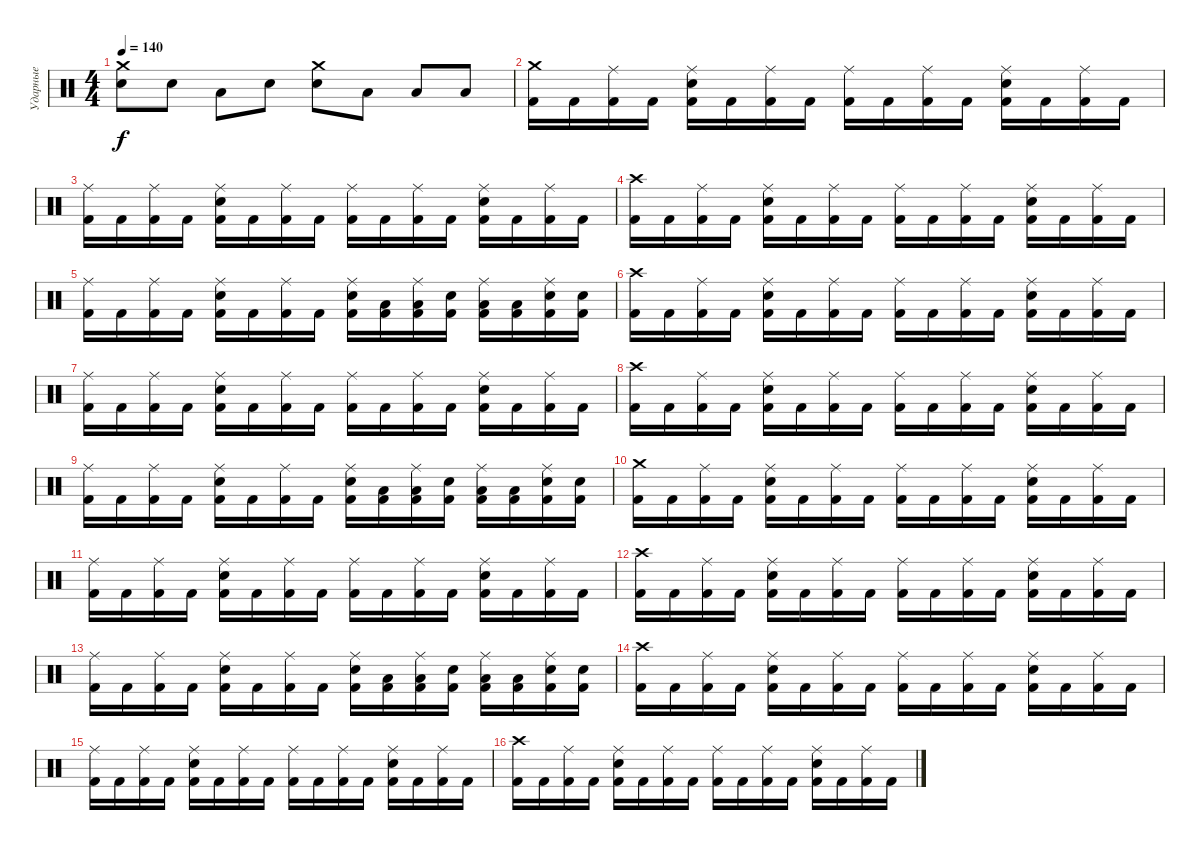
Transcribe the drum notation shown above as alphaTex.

\track ("Ударные" "Ударные") {instrument percussion}
\staff {score}
\articulation defaults
\ts (4 4)
\tempo 140
\clef neutral
\ks c
("Crash medium (hit)" "Electric Snare (hit)").8{dy f} "Electric Snare (hit)".8 "Low Tom (hit)".8 "Electric Snare (hit)".8 ("Crash medium (hit)" "Electric Snare (hit)").8 "Low Tom (hit)".8 "Low Tom (hit)".8 "Low Tom (hit)".8 |
("Crash medium (hit)" "Kick (hit) 2").16 "Kick (hit) 2".16 ("Ride (middle)" "Kick (hit) 2").16 "Kick (hit) 2".16 ("Ride (middle)" "Electric Snare (hit)" "Kick (hit) 2").16 "Kick (hit) 2".16 ("Ride (middle)" "Kick (hit) 2").16 "Kick (hit) 2".16 ("Ride (middle)" "Kick (hit) 2").16 "Kick (hit) 2".16 ("Ride (middle)" "Kick (hit) 2").16 "Kick (hit) 2".16 ("Ride (middle)" "Electric Snare (hit)" "Kick (hit) 2").16 "Kick (hit) 2".16 ("Ride (middle)" "Kick (hit) 2").16 "Kick (hit) 2".16 |
("Ride (middle)" "Kick (hit) 2").16 "Kick (hit) 2".16 ("Ride (middle)" "Kick (hit) 2").16 "Kick (hit) 2".16 ("Ride (middle)" "Electric Snare (hit)" "Kick (hit) 2").16 "Kick (hit) 2".16 ("Ride (middle)" "Kick (hit) 2").16 "Kick (hit) 2".16 ("Ride (middle)" "Kick (hit) 2").16 "Kick (hit) 2".16 ("Ride (middle)" "Kick (hit) 2").16 "Kick (hit) 2".16 ("Ride (middle)" "Electric Snare (hit)" "Kick (hit) 2").16 "Kick (hit) 2".16 ("Ride (middle)" "Kick (hit) 2").16 "Kick (hit) 2".16 |
("Crash high (hit)" "Kick (hit) 2").16 "Kick (hit) 2".16 ("Ride (middle)" "Kick (hit) 2").16 "Kick (hit) 2".16 ("Ride (middle)" "Electric Snare (hit)" "Kick (hit) 2").16 "Kick (hit) 2".16 ("Ride (middle)" "Kick (hit) 2").16 "Kick (hit) 2".16 ("Ride (middle)" "Kick (hit) 2").16 "Kick (hit) 2".16 ("Ride (middle)" "Kick (hit) 2").16 "Kick (hit) 2".16 ("Ride (middle)" "Electric Snare (hit)" "Kick (hit) 2").16 "Kick (hit) 2".16 ("Ride (middle)" "Kick (hit) 2").16 "Kick (hit) 2".16 |
("Ride (middle)" "Kick (hit) 2").16 "Kick (hit) 2".16 ("Ride (middle)" "Kick (hit) 2").16 "Kick (hit) 2".16 ("Ride (middle)" "Electric Snare (hit)" "Kick (hit) 2").16 "Kick (hit) 2".16 ("Ride (middle)" "Kick (hit) 2").16 "Kick (hit) 2".16 ("Ride (middle)" "Electric Snare (hit)" "Kick (hit) 2").16 ("Low Tom (hit)" "Kick (hit) 2").16 ("Ride (middle)" "Low Tom (hit)" "Kick (hit) 2").16 ("Electric Snare (hit)" "Kick (hit) 2").16 ("Ride (middle)" "Low Tom (hit)" "Kick (hit) 2").16 ("Low Tom (hit)" "Kick (hit) 2").16 ("Ride (middle)" "Electric Snare (hit)" "Kick (hit) 2").16 ("Electric Snare (hit)" "Kick (hit) 2").16 |
("Crash high (hit)" "Kick (hit) 2").16 "Kick (hit) 2".16 ("Ride (middle)" "Kick (hit) 2").16 "Kick (hit) 2".16 ("Ride (middle)" "Electric Snare (hit)" "Kick (hit) 2").16 "Kick (hit) 2".16 ("Ride (middle)" "Kick (hit) 2").16 "Kick (hit) 2".16 ("Ride (middle)" "Kick (hit) 2").16 "Kick (hit) 2".16 ("Ride (middle)" "Kick (hit) 2").16 "Kick (hit) 2".16 ("Ride (middle)" "Electric Snare (hit)" "Kick (hit) 2").16 "Kick (hit) 2".16 ("Ride (middle)" "Kick (hit) 2").16 "Kick (hit) 2".16 |
("Ride (middle)" "Kick (hit) 2").16 "Kick (hit) 2".16 ("Ride (middle)" "Kick (hit) 2").16 "Kick (hit) 2".16 ("Ride (middle)" "Electric Snare (hit)" "Kick (hit) 2").16 "Kick (hit) 2".16 ("Ride (middle)" "Kick (hit) 2").16 "Kick (hit) 2".16 ("Ride (middle)" "Kick (hit) 2").16 "Kick (hit) 2".16 ("Ride (middle)" "Kick (hit) 2").16 "Kick (hit) 2".16 ("Ride (middle)" "Electric Snare (hit)" "Kick (hit) 2").16 "Kick (hit) 2".16 ("Ride (middle)" "Kick (hit) 2").16 "Kick (hit) 2".16 |
("Crash high (hit)" "Kick (hit) 2").16 "Kick (hit) 2".16 ("Ride (middle)" "Kick (hit) 2").16 "Kick (hit) 2".16 ("Ride (middle)" "Electric Snare (hit)" "Kick (hit) 2").16 "Kick (hit) 2".16 ("Ride (middle)" "Kick (hit) 2").16 "Kick (hit) 2".16 ("Ride (middle)" "Kick (hit) 2").16 "Kick (hit) 2".16 ("Ride (middle)" "Kick (hit) 2").16 "Kick (hit) 2".16 ("Ride (middle)" "Electric Snare (hit)" "Kick (hit) 2").16 "Kick (hit) 2".16 ("Ride (middle)" "Kick (hit) 2").16 "Kick (hit) 2".16 |
("Ride (middle)" "Kick (hit) 2").16 "Kick (hit) 2".16 ("Ride (middle)" "Kick (hit) 2").16 "Kick (hit) 2".16 ("Ride (middle)" "Electric Snare (hit)" "Kick (hit) 2").16 "Kick (hit) 2".16 ("Ride (middle)" "Kick (hit) 2").16 "Kick (hit) 2".16 ("Ride (middle)" "Electric Snare (hit)" "Kick (hit) 2").16 ("Low Tom (hit)" "Kick (hit) 2").16 ("Ride (middle)" "Low Tom (hit)" "Kick (hit) 2").16 ("Electric Snare (hit)" "Kick (hit) 2").16 ("Ride (middle)" "Low Tom (hit)" "Kick (hit) 2").16 ("Low Tom (hit)" "Kick (hit) 2").16 ("Ride (middle)" "Electric Snare (hit)" "Kick (hit) 2").16 ("Electric Snare (hit)" "Kick (hit) 2").16 |
("Crash medium (hit)" "Kick (hit) 2").16 "Kick (hit) 2".16 ("Ride (middle)" "Kick (hit) 2").16 "Kick (hit) 2".16 ("Ride (middle)" "Electric Snare (hit)" "Kick (hit) 2").16 "Kick (hit) 2".16 ("Ride (middle)" "Kick (hit) 2").16 "Kick (hit) 2".16 ("Ride (middle)" "Kick (hit) 2").16 "Kick (hit) 2".16 ("Ride (middle)" "Kick (hit) 2").16 "Kick (hit) 2".16 ("Ride (middle)" "Electric Snare (hit)" "Kick (hit) 2").16 "Kick (hit) 2".16 ("Ride (middle)" "Kick (hit) 2").16 "Kick (hit) 2".16 |
("Ride (middle)" "Kick (hit) 2").16 "Kick (hit) 2".16 ("Ride (middle)" "Kick (hit) 2").16 "Kick (hit) 2".16 ("Ride (middle)" "Electric Snare (hit)" "Kick (hit) 2").16 "Kick (hit) 2".16 ("Ride (middle)" "Kick (hit) 2").16 "Kick (hit) 2".16 ("Ride (middle)" "Kick (hit) 2").16 "Kick (hit) 2".16 ("Ride (middle)" "Kick (hit) 2").16 "Kick (hit) 2".16 ("Ride (middle)" "Electric Snare (hit)" "Kick (hit) 2").16 "Kick (hit) 2".16 ("Ride (middle)" "Kick (hit) 2").16 "Kick (hit) 2".16 |
("Crash high (hit)" "Kick (hit) 2").16 "Kick (hit) 2".16 ("Ride (middle)" "Kick (hit) 2").16 "Kick (hit) 2".16 ("Ride (middle)" "Electric Snare (hit)" "Kick (hit) 2").16 "Kick (hit) 2".16 ("Ride (middle)" "Kick (hit) 2").16 "Kick (hit) 2".16 ("Ride (middle)" "Kick (hit) 2").16 "Kick (hit) 2".16 ("Ride (middle)" "Kick (hit) 2").16 "Kick (hit) 2".16 ("Ride (middle)" "Electric Snare (hit)" "Kick (hit) 2").16 "Kick (hit) 2".16 ("Ride (middle)" "Kick (hit) 2").16 "Kick (hit) 2".16 |
("Ride (middle)" "Kick (hit) 2").16 "Kick (hit) 2".16 ("Ride (middle)" "Kick (hit) 2").16 "Kick (hit) 2".16 ("Ride (middle)" "Electric Snare (hit)" "Kick (hit) 2").16 "Kick (hit) 2".16 ("Ride (middle)" "Kick (hit) 2").16 "Kick (hit) 2".16 ("Ride (middle)" "Electric Snare (hit)" "Kick (hit) 2").16 ("Low Tom (hit)" "Kick (hit) 2").16 ("Ride (middle)" "Low Tom (hit)" "Kick (hit) 2").16 ("Electric Snare (hit)" "Kick (hit) 2").16 ("Ride (middle)" "Low Tom (hit)" "Kick (hit) 2").16 ("Low Tom (hit)" "Kick (hit) 2").16 ("Ride (middle)" "Electric Snare (hit)" "Kick (hit) 2").16 ("Electric Snare (hit)" "Kick (hit) 2").16 |
("Crash high (hit)" "Kick (hit) 2").16 "Kick (hit) 2".16 ("Ride (middle)" "Kick (hit) 2").16 "Kick (hit) 2".16 ("Ride (middle)" "Electric Snare (hit)" "Kick (hit) 2").16 "Kick (hit) 2".16 ("Ride (middle)" "Kick (hit) 2").16 "Kick (hit) 2".16 ("Ride (middle)" "Kick (hit) 2").16 "Kick (hit) 2".16 ("Ride (middle)" "Kick (hit) 2").16 "Kick (hit) 2".16 ("Ride (middle)" "Electric Snare (hit)" "Kick (hit) 2").16 "Kick (hit) 2".16 ("Ride (middle)" "Kick (hit) 2").16 "Kick (hit) 2".16 |
("Ride (middle)" "Kick (hit) 2").16 "Kick (hit) 2".16 ("Ride (middle)" "Kick (hit) 2").16 "Kick (hit) 2".16 ("Ride (middle)" "Electric Snare (hit)" "Kick (hit) 2").16 "Kick (hit) 2".16 ("Ride (middle)" "Kick (hit) 2").16 "Kick (hit) 2".16 ("Ride (middle)" "Kick (hit) 2").16 "Kick (hit) 2".16 ("Ride (middle)" "Kick (hit) 2").16 "Kick (hit) 2".16 ("Ride (middle)" "Electric Snare (hit)" "Kick (hit) 2").16 "Kick (hit) 2".16 ("Ride (middle)" "Kick (hit) 2").16 "Kick (hit) 2".16 |
("Crash high (hit)" "Kick (hit) 2").16 "Kick (hit) 2".16 ("Ride (middle)" "Kick (hit) 2").16 "Kick (hit) 2".16 ("Ride (middle)" "Electric Snare (hit)" "Kick (hit) 2").16 "Kick (hit) 2".16 ("Ride (middle)" "Kick (hit) 2").16 "Kick (hit) 2".16 ("Ride (middle)" "Kick (hit) 2").16 "Kick (hit) 2".16 ("Ride (middle)" "Kick (hit) 2").16 "Kick (hit) 2".16 ("Ride (middle)" "Electric Snare (hit)" "Kick (hit) 2").16 "Kick (hit) 2".16 ("Ride (middle)" "Kick (hit) 2").16 "Kick (hit) 2".16
